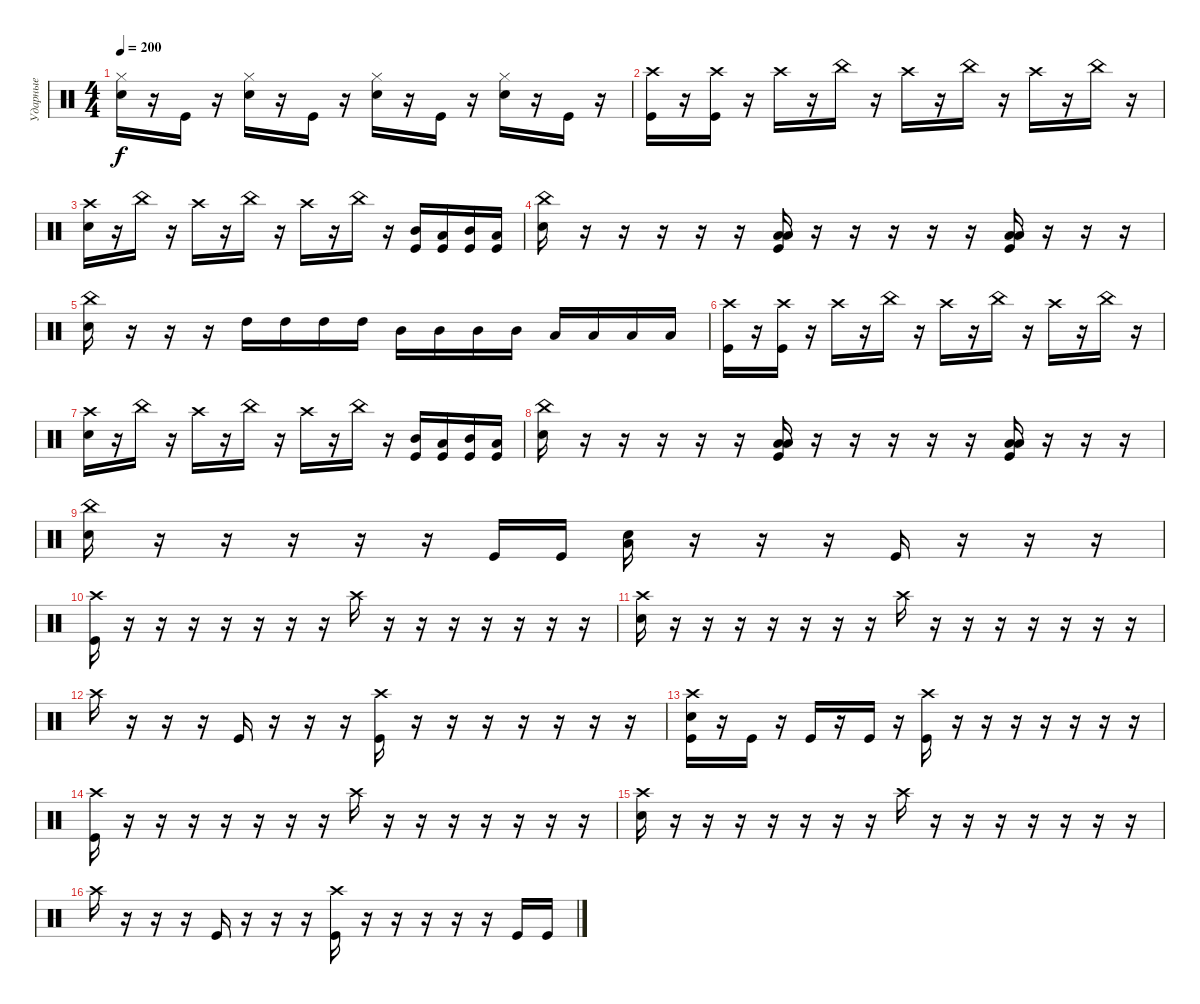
\track ("Ударные" "Ударные") {instrument percussion}
\staff {score}
\articulation defaults
\ts (4 4)
\tempo 200
\clef neutral
\ks c
("Hi-Hat (closed)" "Electric Snare (hit)").16{dy f} r.16 "Kick (hit)".16 r.16 ("Hi-Hat (closed)" "Electric Snare (hit)").16 r.16 "Kick (hit)".16 r.16 ("Hi-Hat (closed)" "Electric Snare (hit)").16 r.16 "Kick (hit)".16 r.16 ("Hi-Hat (closed)" "Electric Snare (hit)").16 r.16 "Kick (hit)".16 r.16 |
("Crash high (hit)" "Kick (hit)").16 r.16 ("Crash high (hit)" "Kick (hit)").16 r.16 "Crash high (hit)".16 r.16 "China (hit)".16 r.16 "Crash high (hit)".16 r.16 "China (hit)".16 r.16 "Crash high (hit)".16 r.16 "China (hit)".16 r.16 |
("Crash high (hit)" "Electric Snare (hit)").16 r.16 "China (hit)".16 r.16 "Crash high (hit)".16 r.16 "China (hit)".16 r.16 "Crash high (hit)".16 r.16 "China (hit)".16 r.16 ("Kick (hit)" "Mid Tom (hit)").16 ("Kick (hit)" "Low Tom (hit)").16 ("Kick (hit)" "Mid Tom (hit)").16 ("Kick (hit)" "Low Tom (hit)").16 |
("China (hit)" "Electric Snare (hit)").16 r.16 r.16 r.16 r.16 r.16 ("Low Floor Tom (hit)" "Kick (hit)" "Low Tom (hit)").16 r.16 r.16 r.16 r.16 r.16 ("Low Floor Tom (hit)" "Kick (hit)" "Low Tom (hit)").16 r.16 r.16 r.16 |
("China (hit)" "Electric Snare (hit)").16 r.16 r.16 r.16 "High Tom (hit)".16 "High Tom (hit)".16 "High Tom (hit)".16 "High Tom (hit)".16 "Mid Tom (hit)".16 "Mid Tom (hit)".16 "Mid Tom (hit)".16 "Mid Tom (hit)".16 "Low Floor Tom (hit)".16 "Low Floor Tom (hit)".16 "Low Floor Tom (hit)".16 "Low Floor Tom (hit)".16 |
("Crash high (hit)" "Kick (hit)").16 r.16 ("Crash high (hit)" "Kick (hit)").16 r.16 "Crash high (hit)".16 r.16 "China (hit)".16 r.16 "Crash high (hit)".16 r.16 "China (hit)".16 r.16 "Crash high (hit)".16 r.16 "China (hit)".16 r.16 |
("Crash high (hit)" "Electric Snare (hit)").16 r.16 "China (hit)".16 r.16 "Crash high (hit)".16 r.16 "China (hit)".16 r.16 "Crash high (hit)".16 r.16 "China (hit)".16 r.16 ("Kick (hit)" "Mid Tom (hit)").16 ("Kick (hit)" "Low Tom (hit)").16 ("Kick (hit)" "Mid Tom (hit)").16 ("Kick (hit)" "Low Tom (hit)").16 |
("China (hit)" "Electric Snare (hit)").16 r.16 r.16 r.16 r.16 r.16 ("Low Floor Tom (hit)" "Kick (hit)" "Low Tom (hit)").16 r.16 r.16 r.16 r.16 r.16 ("Low Floor Tom (hit)" "Kick (hit)" "Low Tom (hit)").16 r.16 r.16 r.16 |
("China (hit)" "Electric Snare (hit)").16 r.16 r.16 r.16 r.16 r.16 "Kick (hit)".16 "Kick (hit)".16 ("Low Floor Tom (hit)" "Electric Snare (hit)").16 r.16 r.16 r.16 "Kick (hit)".16 r.16 r.16 r.16 |
("Crash high (hit)" "Kick (hit)").16 r.16 r.16 r.16 r.16 r.16 r.16 r.16 "Crash high (hit)".16 r.16 r.16 r.16 r.16 r.16 r.16 r.16 |
("Crash high (hit)" "Electric Snare (hit)").16 r.16 r.16 r.16 r.16 r.16 r.16 r.16 "Crash high (hit)".16 r.16 r.16 r.16 r.16 r.16 r.16 r.16 |
"Crash high (hit)".16 r.16 r.16 r.16 "Kick (hit)".16 r.16 r.16 r.16 ("Crash high (hit)" "Kick (hit)").16 r.16 r.16 r.16 r.16 r.16 r.16 r.16 |
("Crash high (hit)" "Kick (hit)" "Electric Snare (hit)").16 r.16 "Kick (hit)".16 r.16 "Kick (hit)".16 r.16 "Kick (hit)".16 r.16 ("Crash high (hit)" "Kick (hit)").16 r.16 r.16 r.16 r.16 r.16 r.16 r.16 |
("Crash high (hit)" "Kick (hit)").16 r.16 r.16 r.16 r.16 r.16 r.16 r.16 "Crash high (hit)".16 r.16 r.16 r.16 r.16 r.16 r.16 r.16 |
("Crash high (hit)" "Electric Snare (hit)").16 r.16 r.16 r.16 r.16 r.16 r.16 r.16 "Crash high (hit)".16 r.16 r.16 r.16 r.16 r.16 r.16 r.16 |
"Crash high (hit)".16 r.16 r.16 r.16 "Kick (hit)".16 r.16 r.16 r.16 ("Crash high (hit)" "Kick (hit)").16 r.16 r.16 r.16 r.16 r.16 "Kick (hit)".16 "Kick (hit)".16
